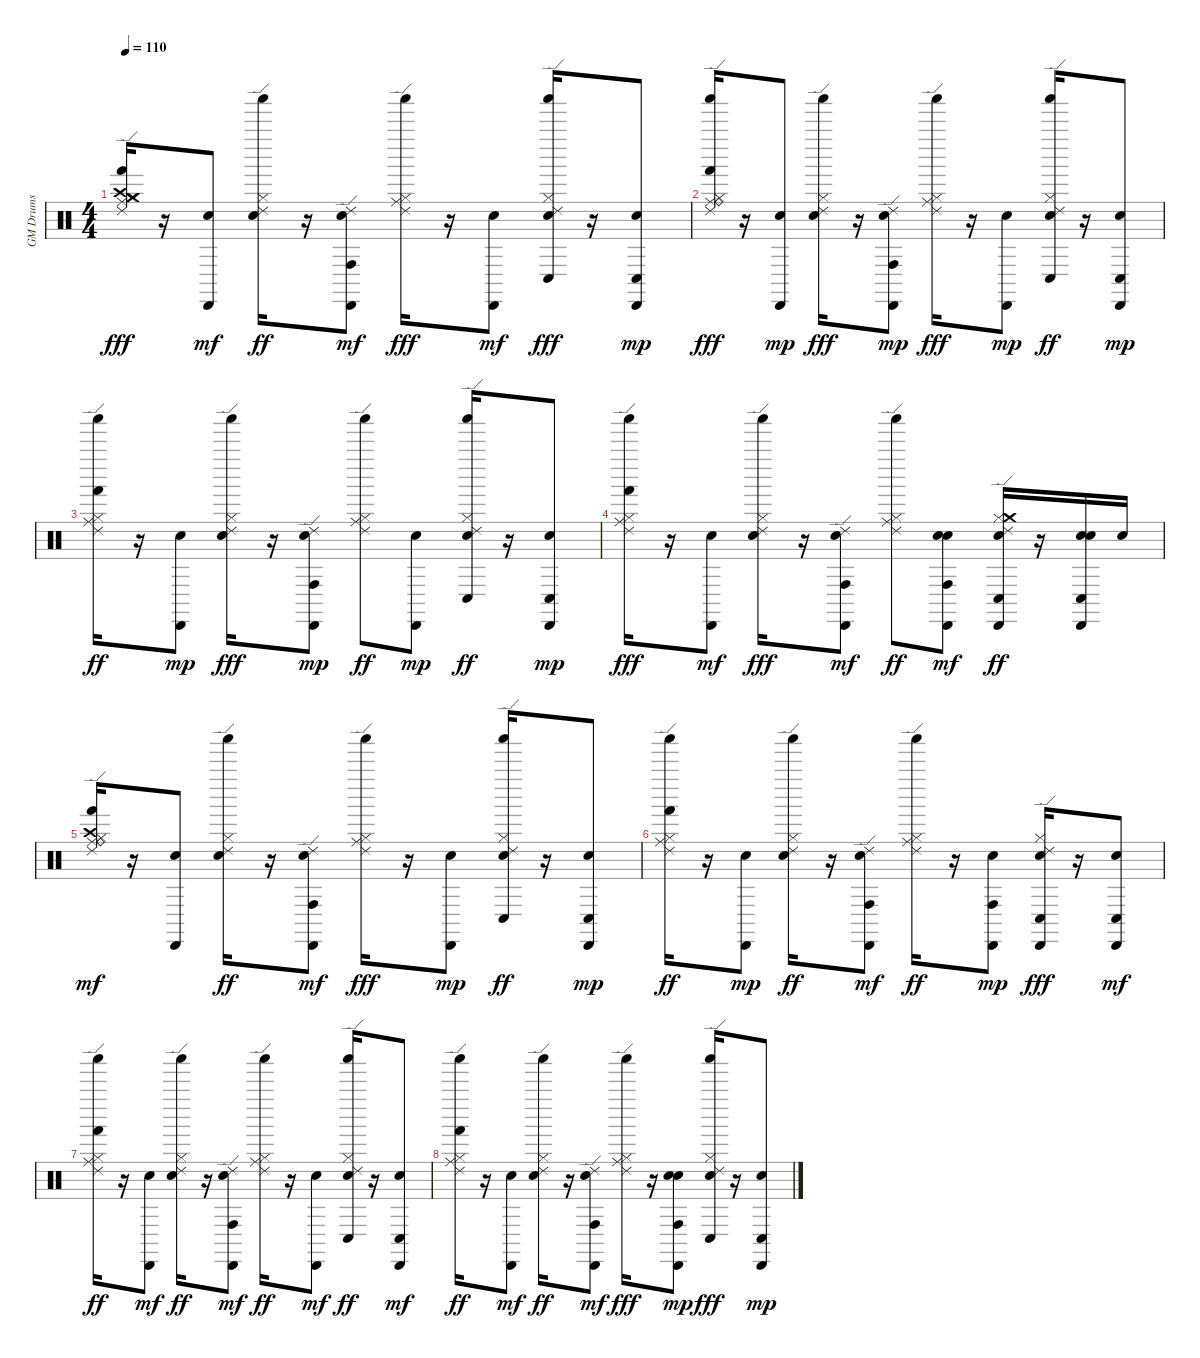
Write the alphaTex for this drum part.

\track ("GM Drums" "GM Drums") {instrument percussion}
\staff {score}
\articulation defaults
\ts (4 4)
\tempo 110
\clef neutral
\ks c
("Hi-Hat (closed)" "Crash high (hit)" "Ride (middle)" "Crash medium (hit)" "Ride (edge) 2" "Hand (hit)").16{dy fff} r.16 ("Snare (hit)" "Cabasa (hit)").8{dy mf} ("Snare (hit) 2" "Hi-Hat (closed)" "Ride (edge) 2" "Shaker (hit)").16{dy ff} r.16 ("Snare (hit)" "Ride (edge) 2" "Conga high (hit)" "Cabasa (hit)").8{dy mf} ("Hi-Hat (closed)" "Ride (middle)" "Ride (edge) 2" "Shaker (hit)").16{dy fff} r.16 ("Snare (hit)" "Cabasa (hit)").8{dy mf} ("Snare (hit) 2" "Hi-Hat (closed)" "Ride (edge) 2" "Conga low (hit)" "Shaker (hit)").16{dy fff} r.16 ("Snare (hit)" "Conga low (hit)" "Cabasa (hit)").8{dy mp} |
("Hi-Hat (closed)" "Ride (middle)" "Ride (bell)" "Ride (edge) 2" "Hand (hit)" "Shaker (hit)").16{dy fff} r.16 ("Snare (hit)" "Cabasa (hit)").8{dy mp} ("Snare (hit) 2" "Hi-Hat (closed)" "Ride (edge) 2" "Shaker (hit)").16{dy fff} r.16 ("Snare (hit)" "Ride (edge) 2" "Conga high (hit)" "Cabasa (hit)").8{dy mp} ("Hi-Hat (closed)" "Ride (middle)" "Ride (edge) 2" "Shaker (hit)").16{dy fff} r.16 ("Snare (hit)" "Cabasa (hit)").8{dy mp} ("Snare (hit) 2" "Hi-Hat (closed)" "Ride (edge) 2" "Conga low (hit)" "Shaker (hit)").16{dy ff} r.16 ("Snare (hit)" "Conga low (hit)" "Cabasa (hit)").8{dy mp} |
("Hi-Hat (closed)" "Ride (middle)" "Ride (edge) 2" "Hand (hit)" "Shaker (hit)").16{dy ff} r.16 ("Snare (hit)" "Cabasa (hit)").8{dy mp} ("Snare (hit) 2" "Hi-Hat (closed)" "Ride (edge) 2" "Shaker (hit)").16{dy fff} r.16 ("Snare (hit)" "Ride (edge) 2" "Conga high (hit)" "Cabasa (hit)").8{dy mp} ("Hi-Hat (closed)" "Ride (middle)" "Ride (edge) 2" "Shaker (hit)").8{dy ff} ("Snare (hit)" "Cabasa (hit)").8{dy mp} ("Snare (hit) 2" "Hi-Hat (closed)" "Ride (edge) 2" "Conga low (hit)" "Shaker (hit)").16{dy ff} r.16 ("Snare (hit)" "Conga low (hit)" "Cabasa (hit)").8{dy mp} |
("Hi-Hat (closed)" "Ride (middle)" "Ride (edge) 2" "Hand (hit)" "Shaker (hit)").16{dy fff} r.16 ("Snare (hit)" "Cabasa (hit)").8{dy mf} ("Snare (hit) 2" "Hi-Hat (closed)" "Ride (edge) 2" "Shaker (hit)").16{dy fff} r.16 ("Snare (hit)" "Ride (edge) 2" "Conga high (hit)" "Cabasa (hit)").8{dy mf} ("Hi-Hat (closed)" "Ride (middle)" "Ride (edge) 2" "Shaker (hit)").8{dy ff} ("Snare (hit)" "Snare (hit) 2" "Conga high (hit)" "Cabasa (hit)").8{dy mf} ("Snare (hit) 2" "Hi-Hat (closed)" "Crash medium (hit)" "Ride (edge) 2" "Conga low (hit)" "Cabasa (hit)").16{dy ff} r.16 ("Snare (hit)" "Snare (hit) 2" "Conga low (hit)" "Cabasa (hit)").16 "Snare (hit) 2".16 |
("Hi-Hat (closed)" "Crash high (hit)" "Ride (middle)" "Ride (bell)" "Ride (edge) 2" "Hand (hit)").16{dy mf} r.16 ("Snare (hit)" "Cabasa (hit)").8 ("Snare (hit) 2" "Hi-Hat (closed)" "Ride (edge) 2" "Shaker (hit)").16{dy ff} r.16 ("Snare (hit)" "Ride (edge) 2" "Conga high (hit)" "Cabasa (hit)").8{dy mf} ("Hi-Hat (closed)" "Ride (middle)" "Ride (edge) 2" "Shaker (hit)").16{dy fff} r.16 ("Snare (hit)" "Cabasa (hit)").8{dy mp} ("Snare (hit) 2" "Hi-Hat (closed)" "Ride (edge) 2" "Conga low (hit)" "Shaker (hit)").16{dy ff} r.16 ("Snare (hit)" "Conga low (hit)" "Cabasa (hit)").8{dy mp} |
("Hi-Hat (closed)" "Ride (middle)" "Ride (edge) 2" "Hand (hit)" "Shaker (hit)").16{dy ff} r.16 ("Snare (hit)" "Cabasa (hit)").8{dy mp} ("Snare (hit) 2" "Hi-Hat (closed)" "Ride (edge) 2" "Shaker (hit)").16{dy ff} r.16 ("Snare (hit)" "Ride (edge) 2" "Conga high (hit)" "Cabasa (hit)").8{dy mf} ("Hi-Hat (closed)" "Ride (middle)" "Ride (edge) 2" "Shaker (hit)").16{dy ff} r.16 ("Snare (hit)" "Conga high (hit)" "Cabasa (hit)").8{dy mp} ("Snare (hit) 2" "Hi-Hat (closed)" "Ride (edge) 2" "Conga low (hit)" "Cabasa (hit)").16{dy fff} r.16 ("Snare (hit)" "Conga low (hit)" "Cabasa (hit)").8{dy mf} |
("Hi-Hat (closed)" "Ride (middle)" "Ride (edge) 2" "Hand (hit)" "Shaker (hit)").16{dy ff} r.16 ("Snare (hit)" "Cabasa (hit)").8{dy mf} ("Snare (hit) 2" "Hi-Hat (closed)" "Ride (edge) 2" "Shaker (hit)").16{dy ff} r.16 ("Snare (hit)" "Ride (edge) 2" "Conga high (hit)" "Cabasa (hit)").8{dy mf} ("Hi-Hat (closed)" "Ride (middle)" "Ride (edge) 2" "Shaker (hit)").16{dy ff} r.16 ("Snare (hit)" "Cabasa (hit)").8{dy mf} ("Snare (hit) 2" "Hi-Hat (closed)" "Ride (edge) 2" "Conga low (hit)" "Shaker (hit)").16{dy ff} r.16 ("Snare (hit)" "Conga low (hit)" "Cabasa (hit)").8{dy mf} |
("Hi-Hat (closed)" "Ride (middle)" "Ride (edge) 2" "Hand (hit)" "Shaker (hit)").16{dy ff} r.16 ("Snare (hit)" "Cabasa (hit)").8{dy mf} ("Snare (hit) 2" "Hi-Hat (closed)" "Ride (edge) 2" "Shaker (hit)").16{dy ff} r.16 ("Snare (hit)" "Ride (edge) 2" "Conga high (hit)" "Cabasa (hit)").8{dy mf} ("Hi-Hat (closed)" "Ride (middle)" "Ride (edge) 2" "Shaker (hit)").16{dy fff} r.16 ("Snare (hit)" "Snare (hit) 2" "Conga high (hit)" "Cabasa (hit)").8{dy mp} ("Snare (hit) 2" "Hi-Hat (closed)" "Ride (edge) 2" "Conga low (hit)" "Shaker (hit)").16{dy fff} r.16 ("Snare (hit)" "Conga low (hit)" "Cabasa (hit)").8{dy mp}
